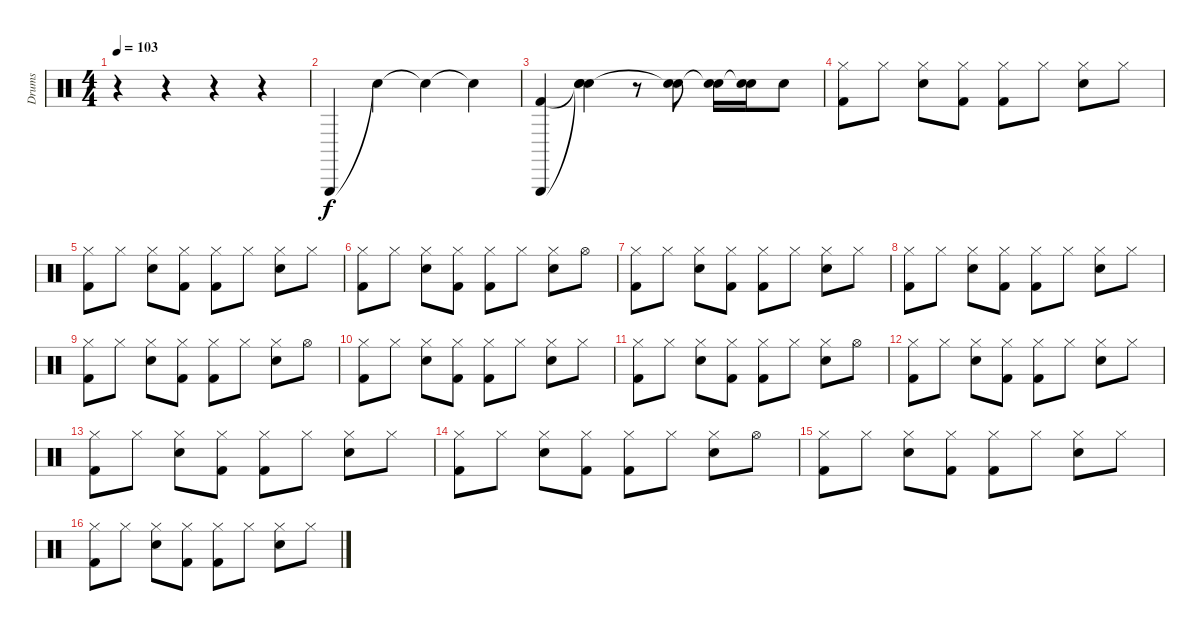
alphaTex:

\track ("Drums" "Drums") {instrument percussion}
\staff {score}
\articulation defaults
\ts (4 4)
\tempo 103
\clef neutral
\ks c
r.4{dy f} r.4 r.4 r.4 |
"Triangle (hit)".4 "Snare (hit)"{t}.4 "Snare (hit)"{t}.4 "Snare (hit)"{t}.4 |
("Triangle (hit)" "Kick (hit) 2").4 ("Snare (hit)"{t} "Snare (hit)"{t} "Snare (hit)").4 r.8 ("Electric Snare (hit)" "Snare (hit)"{t}).8 ("Electric Snare (hit)" "Snare (hit)"{t}).16 ("Electric Snare (hit)" "Snare (hit)"{t}).16 "Electric Snare (hit)".8 |
("Hi-Hat (closed)" "Kick (hit) 2").8 "Hi-Hat (closed)".8 ("Hi-Hat (closed)" "Electric Snare (hit)").8 ("Hi-Hat (closed)" "Kick (hit) 2").8 ("Hi-Hat (closed)" "Kick (hit) 2").8 "Hi-Hat (closed)".8 ("Hi-Hat (closed)" "Electric Snare (hit)").8 "Hi-Hat (closed)".8 |
("Hi-Hat (closed)" "Kick (hit) 2").8 "Hi-Hat (closed)".8 ("Hi-Hat (closed)" "Electric Snare (hit)").8 ("Hi-Hat (closed)" "Kick (hit) 2").8 ("Hi-Hat (closed)" "Kick (hit) 2").8 "Hi-Hat (closed)".8 ("Hi-Hat (closed)" "Electric Snare (hit)").8 "Hi-Hat (closed)".8 |
("Hi-Hat (closed)" "Kick (hit) 2").8 "Hi-Hat (closed)".8 ("Hi-Hat (closed)" "Electric Snare (hit)").8 ("Hi-Hat (closed)" "Kick (hit) 2").8 ("Hi-Hat (closed)" "Kick (hit) 2").8 "Hi-Hat (closed)".8 ("Hi-Hat (closed)" "Electric Snare (hit)").8 "Hi-Hat (open)".8 |
("Hi-Hat (closed)" "Kick (hit) 2").8 "Hi-Hat (closed)".8 ("Hi-Hat (closed)" "Electric Snare (hit)").8 ("Hi-Hat (closed)" "Kick (hit) 2").8 ("Hi-Hat (closed)" "Kick (hit) 2").8 "Hi-Hat (closed)".8 ("Hi-Hat (closed)" "Electric Snare (hit)").8 "Hi-Hat (closed)".8 |
("Hi-Hat (closed)" "Kick (hit) 2").8 "Hi-Hat (closed)".8 ("Hi-Hat (closed)" "Electric Snare (hit)").8 ("Hi-Hat (closed)" "Kick (hit) 2").8 ("Hi-Hat (closed)" "Kick (hit) 2").8 "Hi-Hat (closed)".8 ("Hi-Hat (closed)" "Electric Snare (hit)").8 "Hi-Hat (closed)".8 |
("Hi-Hat (closed)" "Kick (hit) 2").8 "Hi-Hat (closed)".8 ("Hi-Hat (closed)" "Electric Snare (hit)").8 ("Hi-Hat (closed)" "Kick (hit) 2").8 ("Hi-Hat (closed)" "Kick (hit) 2").8 "Hi-Hat (closed)".8 ("Hi-Hat (closed)" "Electric Snare (hit)").8 "Hi-Hat (open)".8 |
("Hi-Hat (closed)" "Kick (hit) 2").8 "Hi-Hat (closed)".8 ("Hi-Hat (closed)" "Electric Snare (hit)").8 ("Hi-Hat (closed)" "Kick (hit) 2").8 ("Hi-Hat (closed)" "Kick (hit) 2").8 "Hi-Hat (closed)".8 ("Hi-Hat (closed)" "Electric Snare (hit)").8 "Hi-Hat (closed)".8 |
("Hi-Hat (closed)" "Kick (hit) 2").8 "Hi-Hat (closed)".8 ("Hi-Hat (closed)" "Electric Snare (hit)").8 ("Hi-Hat (closed)" "Kick (hit) 2").8 ("Hi-Hat (closed)" "Kick (hit) 2").8 "Hi-Hat (closed)".8 ("Hi-Hat (closed)" "Electric Snare (hit)").8 "Hi-Hat (open)".8 |
("Hi-Hat (closed)" "Kick (hit) 2").8 "Hi-Hat (closed)".8 ("Hi-Hat (closed)" "Electric Snare (hit)").8 ("Hi-Hat (closed)" "Kick (hit) 2").8 ("Hi-Hat (closed)" "Kick (hit) 2").8 "Hi-Hat (closed)".8 ("Hi-Hat (closed)" "Electric Snare (hit)").8 "Hi-Hat (closed)".8 |
("Hi-Hat (closed)" "Kick (hit) 2").8 "Hi-Hat (closed)".8 ("Hi-Hat (closed)" "Electric Snare (hit)").8 ("Hi-Hat (closed)" "Kick (hit) 2").8 ("Hi-Hat (closed)" "Kick (hit) 2").8 "Hi-Hat (closed)".8 ("Hi-Hat (closed)" "Electric Snare (hit)").8 "Hi-Hat (closed)".8 |
("Hi-Hat (closed)" "Kick (hit) 2").8 "Hi-Hat (closed)".8 ("Hi-Hat (closed)" "Electric Snare (hit)").8 ("Hi-Hat (closed)" "Kick (hit) 2").8 ("Hi-Hat (closed)" "Kick (hit) 2").8 "Hi-Hat (closed)".8 ("Hi-Hat (closed)" "Electric Snare (hit)").8 "Hi-Hat (open)".8 |
("Hi-Hat (closed)" "Kick (hit) 2").8 "Hi-Hat (closed)".8 ("Hi-Hat (closed)" "Electric Snare (hit)").8 ("Hi-Hat (closed)" "Kick (hit) 2").8 ("Hi-Hat (closed)" "Kick (hit) 2").8 "Hi-Hat (closed)".8 ("Hi-Hat (closed)" "Electric Snare (hit)").8 "Hi-Hat (closed)".8 |
("Hi-Hat (closed)" "Kick (hit) 2").8 "Hi-Hat (closed)".8 ("Hi-Hat (closed)" "Electric Snare (hit)").8 ("Hi-Hat (closed)" "Kick (hit) 2").8 ("Hi-Hat (closed)" "Kick (hit) 2").8 "Hi-Hat (closed)".8 ("Hi-Hat (closed)" "Electric Snare (hit)").8 "Hi-Hat (closed)".8
